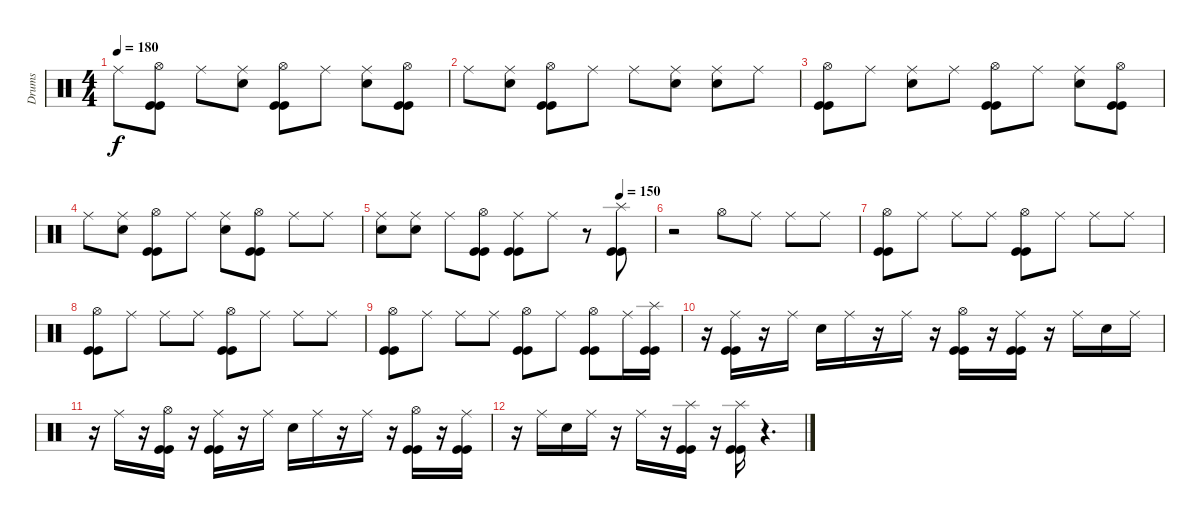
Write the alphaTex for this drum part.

\track ("Drums" "Drums") {instrument percussion}
\staff {score}
\articulation defaults
\ts (4 4)
\tempo 180
\clef neutral
\ks c "Ride (middle)".8{dy f}
("Hi-Hat (open)" "Kick (hit)" "Kick (hit)").8 "Ride (middle)".8 ("Ride (middle)" "Snare (hit) 2").8 ("Hi-Hat (open)" "Kick (hit)" "Kick (hit)").8 "Ride (middle)".8 ("Ride (middle)" "Snare (hit) 2").8 ("Hi-Hat (open)" "Kick (hit)" "Kick (hit)").8 |
"Ride (middle)".8 ("Ride (middle)" "Snare (hit) 2").8 ("Hi-Hat (open)" "Kick (hit)" "Kick (hit)").8 "Ride (middle)".8 "Ride (middle)".8 ("Ride (middle)" "Snare (hit) 2").8 ("Ride (middle)" "Snare (hit) 2").8 "Ride (middle)".8 |
("Hi-Hat (open)" "Kick (hit)" "Kick (hit)").8 "Ride (middle)".8 ("Ride (middle)" "Snare (hit) 2").8 "Ride (middle)".8 ("Hi-Hat (open)" "Kick (hit)" "Kick (hit)").8 "Ride (middle)".8 ("Ride (middle)" "Snare (hit) 2").8 ("Hi-Hat (open)" "Kick (hit)" "Kick (hit)").8 |
"Ride (middle)".8 ("Ride (middle)" "Snare (hit) 2").8 ("Hi-Hat (open)" "Kick (hit)" "Kick (hit)").8 "Ride (middle)".8 ("Ride (middle)" "Snare (hit) 2").8 ("Hi-Hat (open)" "Kick (hit)" "Kick (hit)").8 "Ride (middle)".8 "Ride (middle)".8 |
\tempo (150 0.875)
("Ride (middle)" "Snare (hit) 2").8 ("Ride (middle)" "Snare (hit) 2").8 "Ride (middle)".8 ("Hi-Hat (open)" "Kick (hit)" "Kick (hit)").8 ("Ride (middle)" "Kick (hit)" "Kick (hit)").8 "Ride (middle)".8 r.8 ("Splash (hit)" "Kick (hit)" "Kick (hit)").8 |
r.2 "Hi-Hat (open)".8 "Ride (middle)".8 "Ride (middle)".8 "Ride (middle)".8 |
("Hi-Hat (open)" "Kick (hit)" "Kick (hit)").8 "Ride (middle)".8 "Ride (middle)".8 "Ride (middle)".8 ("Hi-Hat (open)" "Kick (hit)" "Kick (hit)").8 "Ride (middle)".8 "Ride (middle)".8 "Ride (middle)".8 |
("Hi-Hat (open)" "Kick (hit)" "Kick (hit)").8 "Ride (middle)".8 "Ride (middle)".8 "Ride (middle)".8 ("Hi-Hat (open)" "Kick (hit)" "Kick (hit)").8 "Ride (middle)".8 "Ride (middle)".8 "Ride (middle)".8 |
("Hi-Hat (open)" "Kick (hit)" "Kick (hit)").8 "Ride (middle)".8 "Ride (middle)".8 "Ride (middle)".8 ("Hi-Hat (open)" "Kick (hit)" "Kick (hit)").8 "Ride (middle)".8 ("Hi-Hat (open)" "Kick (hit)" "Kick (hit)").8 "Ride (middle)".16 ("Splash (hit)" "Kick (hit)" "Kick (hit)").16 |
r.16 ("Ride (middle)" "Kick (hit)" "Kick (hit)").16 r.16 "Ride (middle)".16 "Snare (hit) 2".16 "Ride (middle)".16 r.16 "Ride (middle)".16 r.16 ("Hi-Hat (open)" "Kick (hit)" "Kick (hit)").16 r.16 ("Ride (middle)" "Kick (hit)" "Kick (hit)").16 r.16 "Ride (middle)".16 "Snare (hit) 2".16 "Ride (middle)".16 |
r.16 "Ride (middle)".16 r.16 ("Hi-Hat (open)" "Kick (hit)" "Kick (hit)").16 r.16 ("Ride (middle)" "Kick (hit)" "Kick (hit)").16 r.16 "Ride (middle)".16 "Snare (hit) 2".16 "Ride (middle)".16 r.16 "Ride (middle)".16 r.16 ("Hi-Hat (open)" "Kick (hit)" "Kick (hit)").16 r.16 ("Ride (middle)" "Kick (hit)" "Kick (hit)").16 |
r.16 "Ride (middle)".16 "Snare (hit) 2".16 "Ride (middle)".16 r.16 "Ride (middle)".16 r.16 ("Splash (hit)" "Kick (hit)" "Kick (hit)").16 r.16 ("Splash (hit)" "Kick (hit)" "Kick (hit)").16 r.4{d}
